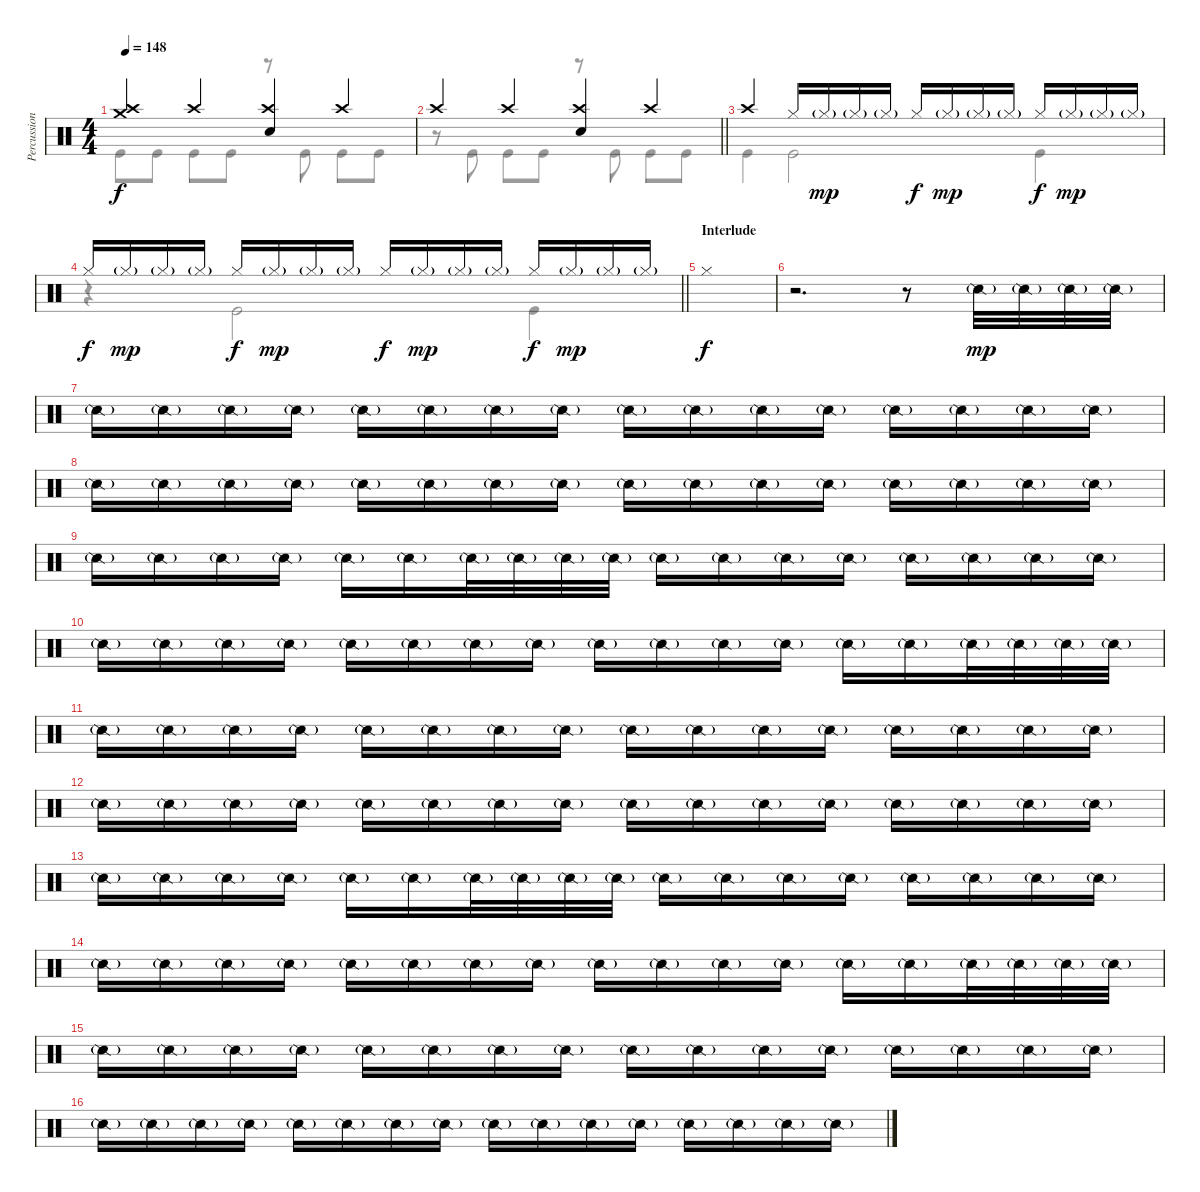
\track ("Percussion" "Percussion") {instrument percussion}
\staff {score}
\articulation defaults
\voice
\ts (4 4)
\tempo 148
\clef neutral
\ks c
("Crash medium (hit)" "Crash high (hit)").4{dy f} "Crash high (hit)".4 ("Crash high (hit)" "Electric Snare (hit)").4 "Crash high (hit)".4 |
\barLineRight lightlight "Crash high (hit)".4 "Crash high (hit)".4
("Crash high (hit)" "Electric Snare (hit)").4 "Crash high (hit)".4 |
\section ("" "")
"Crash high (hit)".4 "Hi-Hat (closed)".16 "Hi-Hat (closed)"{g}.16{dy mp} "Hi-Hat (closed)"{g}.16 "Hi-Hat (closed)"{g}.16 "Hi-Hat (closed)".16{dy f} "Hi-Hat (closed)"{g}.16{dy mp} "Hi-Hat (closed)"{g}.16 "Hi-Hat (closed)"{g}.16 "Hi-Hat (closed)".16{dy f} "Hi-Hat (closed)"{g}.16{dy mp} "Hi-Hat (closed)"{g}.16 "Hi-Hat (closed)"{g}.16 |
\barLineRight lightlight "Hi-Hat (closed)".16{dy f} "Hi-Hat (closed)"{g}.16{dy mp} "Hi-Hat (closed)"{g}.16 "Hi-Hat (closed)"{g}.16 "Hi-Hat (closed)".16{dy f} "Hi-Hat (closed)"{g}.16{dy mp} "Hi-Hat (closed)"{g}.16 "Hi-Hat (closed)"{g}.16 "Hi-Hat (closed)".16{dy f} "Hi-Hat (closed)"{g}.16{dy mp} "Hi-Hat (closed)"{g}.16 "Hi-Hat (closed)"{g}.16 "Hi-Hat (closed)".16{dy f} "Hi-Hat (closed)"{g}.16{dy mp} "Hi-Hat (closed)"{g}.16 "Hi-Hat (closed)"{g}.16
|
\section ("" "Interlude")
"Hi-Hat (closed)".1{dy f} |
r.2{d} r.8 "Snare (side stick) 2"{g}.32{dy mp} "Snare (side stick) 2"{g}.32 "Snare (side stick) 2"{g}.32 "Snare (side stick) 2"{g}.32 |
"Snare (side stick) 2"{g}.16 "Snare (side stick) 2"{g}.16 "Snare (side stick) 2"{g}.16 "Snare (side stick) 2"{g}.16 "Snare (side stick) 2"{g}.16 "Snare (side stick) 2"{g}.16 "Snare (side stick) 2"{g}.16 "Snare (side stick) 2"{g}.16 "Snare (side stick) 2"{g}.16 "Snare (side stick) 2"{g}.16 "Snare (side stick) 2"{g}.16 "Snare (side stick) 2"{g}.16 "Snare (side stick) 2"{g}.16 "Snare (side stick) 2"{g}.16 "Snare (side stick) 2"{g}.16 "Snare (side stick) 2"{g}.16 |
"Snare (side stick) 2"{g}.16 "Snare (side stick) 2"{g}.16 "Snare (side stick) 2"{g}.16 "Snare (side stick) 2"{g}.16 "Snare (side stick) 2"{g}.16 "Snare (side stick) 2"{g}.16 "Snare (side stick) 2"{g}.16 "Snare (side stick) 2"{g}.16 "Snare (side stick) 2"{g}.16 "Snare (side stick) 2"{g}.16 "Snare (side stick) 2"{g}.16 "Snare (side stick) 2"{g}.16 "Snare (side stick) 2"{g}.16 "Snare (side stick) 2"{g}.16 "Snare (side stick) 2"{g}.16 "Snare (side stick) 2"{g}.16 |
"Snare (side stick) 2"{g}.16 "Snare (side stick) 2"{g}.16 "Snare (side stick) 2"{g}.16 "Snare (side stick) 2"{g}.16 "Snare (side stick) 2"{g}.16 "Snare (side stick) 2"{g}.16 "Snare (side stick) 2"{g}.32 "Snare (side stick) 2"{g}.32 "Snare (side stick) 2"{g}.32 "Snare (side stick) 2"{g}.32 "Snare (side stick) 2"{g}.16 "Snare (side stick) 2"{g}.16 "Snare (side stick) 2"{g}.16 "Snare (side stick) 2"{g}.16 "Snare (side stick) 2"{g}.16 "Snare (side stick) 2"{g}.16 "Snare (side stick) 2"{g}.16 "Snare (side stick) 2"{g}.16 |
"Snare (side stick) 2"{g}.16 "Snare (side stick) 2"{g}.16 "Snare (side stick) 2"{g}.16 "Snare (side stick) 2"{g}.16 "Snare (side stick) 2"{g}.16 "Snare (side stick) 2"{g}.16 "Snare (side stick) 2"{g}.16 "Snare (side stick) 2"{g}.16 "Snare (side stick) 2"{g}.16 "Snare (side stick) 2"{g}.16 "Snare (side stick) 2"{g}.16 "Snare (side stick) 2"{g}.16 "Snare (side stick) 2"{g}.16 "Snare (side stick) 2"{g}.16 "Snare (side stick) 2"{g}.32 "Snare (side stick) 2"{g}.32 "Snare (side stick) 2"{g}.32 "Snare (side stick) 2"{g}.32 |
"Snare (side stick) 2"{g}.16 "Snare (side stick) 2"{g}.16 "Snare (side stick) 2"{g}.16 "Snare (side stick) 2"{g}.16 "Snare (side stick) 2"{g}.16 "Snare (side stick) 2"{g}.16 "Snare (side stick) 2"{g}.16 "Snare (side stick) 2"{g}.16 "Snare (side stick) 2"{g}.16 "Snare (side stick) 2"{g}.16 "Snare (side stick) 2"{g}.16 "Snare (side stick) 2"{g}.16 "Snare (side stick) 2"{g}.16 "Snare (side stick) 2"{g}.16 "Snare (side stick) 2"{g}.16 "Snare (side stick) 2"{g}.16 |
"Snare (side stick) 2"{g}.16 "Snare (side stick) 2"{g}.16 "Snare (side stick) 2"{g}.16 "Snare (side stick) 2"{g}.16 "Snare (side stick) 2"{g}.16 "Snare (side stick) 2"{g}.16 "Snare (side stick) 2"{g}.16 "Snare (side stick) 2"{g}.16 "Snare (side stick) 2"{g}.16 "Snare (side stick) 2"{g}.16 "Snare (side stick) 2"{g}.16 "Snare (side stick) 2"{g}.16 "Snare (side stick) 2"{g}.16 "Snare (side stick) 2"{g}.16 "Snare (side stick) 2"{g}.16 "Snare (side stick) 2"{g}.16 |
"Snare (side stick) 2"{g}.16 "Snare (side stick) 2"{g}.16 "Snare (side stick) 2"{g}.16 "Snare (side stick) 2"{g}.16 "Snare (side stick) 2"{g}.16 "Snare (side stick) 2"{g}.16 "Snare (side stick) 2"{g}.32 "Snare (side stick) 2"{g}.32 "Snare (side stick) 2"{g}.32 "Snare (side stick) 2"{g}.32 "Snare (side stick) 2"{g}.16 "Snare (side stick) 2"{g}.16 "Snare (side stick) 2"{g}.16 "Snare (side stick) 2"{g}.16 "Snare (side stick) 2"{g}.16 "Snare (side stick) 2"{g}.16 "Snare (side stick) 2"{g}.16 "Snare (side stick) 2"{g}.16 |
"Snare (side stick) 2"{g}.16 "Snare (side stick) 2"{g}.16 "Snare (side stick) 2"{g}.16 "Snare (side stick) 2"{g}.16 "Snare (side stick) 2"{g}.16 "Snare (side stick) 2"{g}.16 "Snare (side stick) 2"{g}.16 "Snare (side stick) 2"{g}.16 "Snare (side stick) 2"{g}.16 "Snare (side stick) 2"{g}.16 "Snare (side stick) 2"{g}.16 "Snare (side stick) 2"{g}.16 "Snare (side stick) 2"{g}.16 "Snare (side stick) 2"{g}.16 "Snare (side stick) 2"{g}.32 "Snare (side stick) 2"{g}.32 "Snare (side stick) 2"{g}.32 "Snare (side stick) 2"{g}.32 |
"Snare (side stick) 2"{g}.16 "Snare (side stick) 2"{g}.16 "Snare (side stick) 2"{g}.16 "Snare (side stick) 2"{g}.16 "Snare (side stick) 2"{g}.16 "Snare (side stick) 2"{g}.16 "Snare (side stick) 2"{g}.16 "Snare (side stick) 2"{g}.16 "Snare (side stick) 2"{g}.16 "Snare (side stick) 2"{g}.16 "Snare (side stick) 2"{g}.16 "Snare (side stick) 2"{g}.16 "Snare (side stick) 2"{g}.16 "Snare (side stick) 2"{g}.16 "Snare (side stick) 2"{g}.16 "Snare (side stick) 2"{g}.16 |
"Snare (side stick) 2"{g}.16 "Snare (side stick) 2"{g}.16 "Snare (side stick) 2"{g}.16 "Snare (side stick) 2"{g}.16 "Snare (side stick) 2"{g}.16 "Snare (side stick) 2"{g}.16 "Snare (side stick) 2"{g}.16 "Snare (side stick) 2"{g}.16 "Snare (side stick) 2"{g}.16 "Snare (side stick) 2"{g}.16 "Snare (side stick) 2"{g}.16 "Snare (side stick) 2"{g}.16 "Snare (side stick) 2"{g}.16 "Snare (side stick) 2"{g}.16 "Snare (side stick) 2"{g}.16 "Snare (side stick) 2"{g}.16
\voice
\clef neutral
\ottava regular
\simile none
\ks c "Kick (hit)".8{dy f} "Kick (hit)".8 "Kick (hit)".8 "Kick (hit)".8
r.8 "Kick (hit)".8 "Kick (hit)".8 "Kick (hit)".8 |
\barLineRight lightlight
r.8 "Kick (hit)".8 "Kick (hit)".8 "Kick (hit)".8 r.8 "Kick (hit)".8 "Kick (hit)".8 "Kick (hit)".8 |
"Kick (hit)".4 "Kick (hit)".2 "Kick (hit)".4 |
\barLineRight lightlight
r.4 "Kick (hit)".2 "Kick (hit)".4 |
|
|
|
|
|
|
|
|
|
|
|
